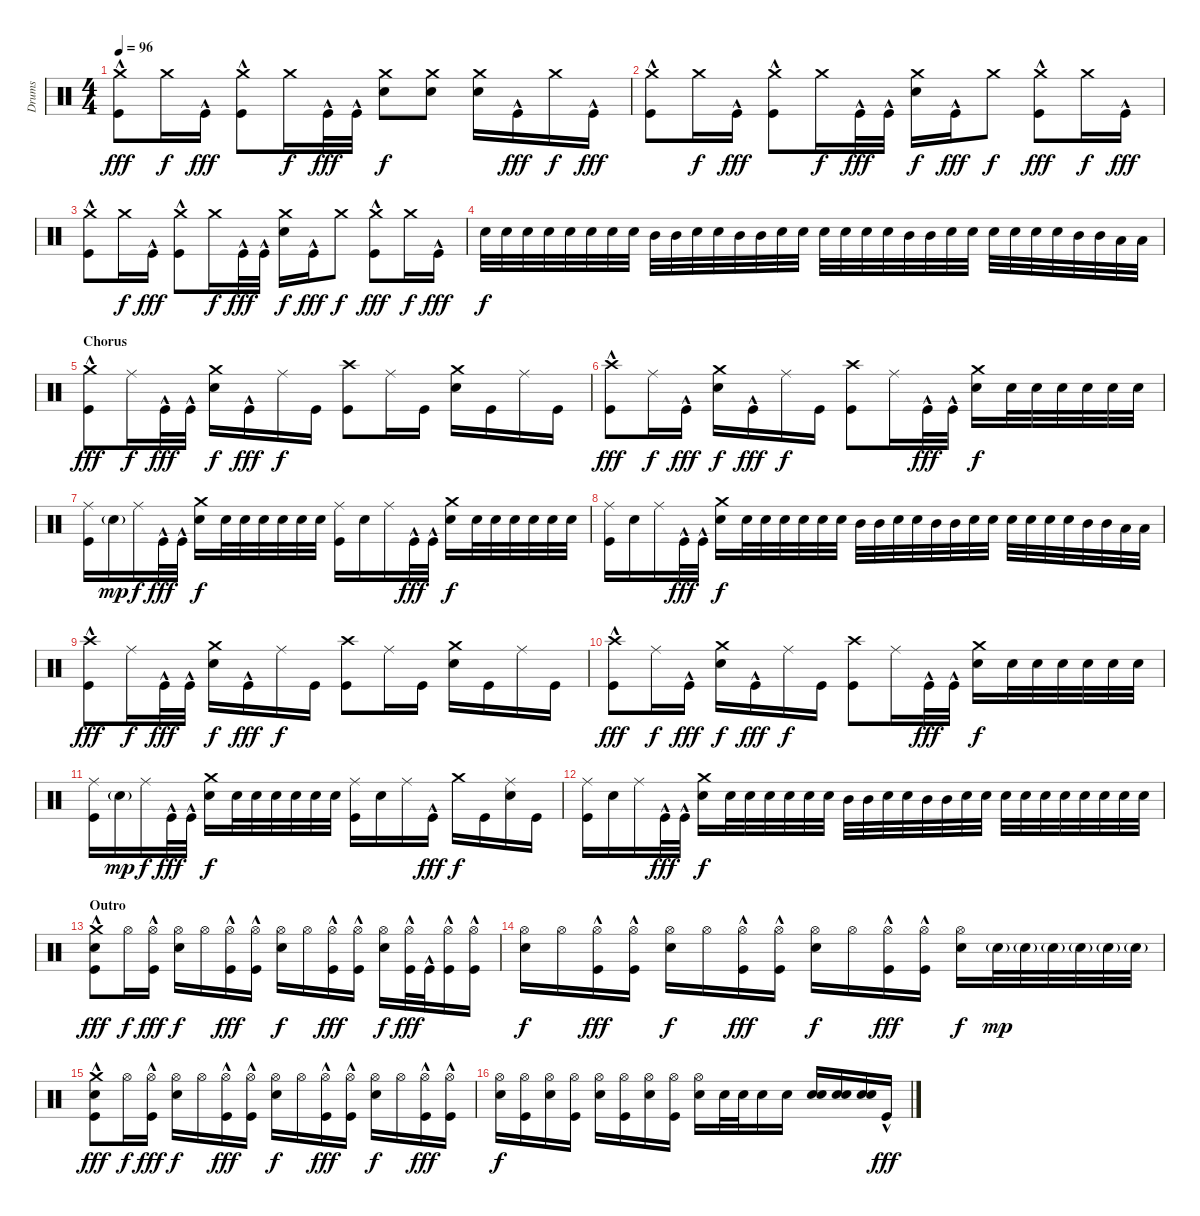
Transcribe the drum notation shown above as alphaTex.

\track ("Drums" "Drums") {instrument percussion}
\staff {score}
\articulation defaults
\ts (4 4)
\tempo 96
\clef neutral
\ks c
("Crash medium (hit)" "Kick (hit)"{hac}).8{dy fff} "Crash medium (hit)".16{dy f} "Kick (hit)"{hac}.16{dy fff} ("Crash medium (hit)" "Kick (hit)"{hac}).8 "Crash medium (hit)".16{dy f} "Kick (hit)"{hac}.32{dy fff} "Kick (hit)"{hac}.32 ("Crash medium (hit)" "Electric Snare (hit)").8{dy f} ("Crash medium (hit)" "Electric Snare (hit)").8 ("Crash medium (hit)" "Electric Snare (hit)").16 "Kick (hit)"{hac}.16{dy fff} "Crash medium (hit)".16{dy f} "Kick (hit)"{hac}.16{dy fff} |
("Crash medium (hit)" "Kick (hit)"{hac}).8 "Crash medium (hit)".16{dy f} "Kick (hit)"{hac}.16{dy fff} ("Crash medium (hit)" "Kick (hit)"{hac}).8 "Crash medium (hit)".16{dy f} "Kick (hit)"{hac}.32{dy fff} "Kick (hit)"{hac}.32 ("Crash medium (hit)" "Electric Snare (hit)").16{dy f} "Kick (hit)"{hac}.16{dy fff} "Crash medium (hit)".8{dy f} ("Crash medium (hit)" "Kick (hit)"{hac}).8{dy fff} "Crash medium (hit)".16{dy f} "Kick (hit)"{hac}.16{dy fff} |
("Crash medium (hit)" "Kick (hit)"{hac}).8 "Crash medium (hit)".16{dy f} "Kick (hit)"{hac}.16{dy fff} ("Crash medium (hit)" "Kick (hit)"{hac}).8 "Crash medium (hit)".16{dy f} "Kick (hit)"{hac}.32{dy fff} "Kick (hit)"{hac}.32 ("Crash medium (hit)" "Electric Snare (hit)").16{dy f} "Kick (hit)"{hac}.16{dy fff} "Crash medium (hit)".8{dy f} ("Crash medium (hit)" "Kick (hit)"{hac}).8{dy fff} "Crash medium (hit)".16{dy f} "Kick (hit)"{hac}.16{dy fff} |
"Electric Snare (hit)".32{dy f} "Electric Snare (hit)".32 "Electric Snare (hit)".32 "Electric Snare (hit)".32 "Electric Snare (hit)".32 "Electric Snare (hit)".32 "Electric Snare (hit)".32 "Electric Snare (hit)".32 "Mid Tom (hit)".32 "Mid Tom (hit)".32 "Electric Snare (hit)".32 "Electric Snare (hit)".32 "Mid Tom (hit)".32 "Mid Tom (hit)".32 "Electric Snare (hit)".32 "Electric Snare (hit)".32 "Electric Snare (hit)".32 "Electric Snare (hit)".32 "Electric Snare (hit)".32 "Electric Snare (hit)".32 "Mid Tom (hit)".32 "Mid Tom (hit)".32 "Electric Snare (hit)".32 "Electric Snare (hit)".32 "Electric Snare (hit)".32 "Electric Snare (hit)".32 "Electric Snare (hit)".32 "Electric Snare (hit)".32 "Mid Tom (hit)".32 "Mid Tom (hit)".32 "Low Tom (hit)".32 "Low Tom (hit)".32 |
\section ("" "Chorus")
("Crash medium (hit)" "Kick (hit)"{hac}).8{dy fff} "Ride (middle)".16{dy f} "Kick (hit)"{hac}.32{dy fff} "Kick (hit)"{hac}.32 ("Crash medium (hit)" "Electric Snare (hit)").16{dy f} "Kick (hit)"{hac}.16{dy fff} "Ride (middle)".16{dy f} "Kick (hit)".16 ("Crash high (hit)" "Kick (hit)").8 "Ride (middle)".16 "Kick (hit)".16 ("Crash medium (hit)" "Electric Snare (hit)").16 "Kick (hit)".16 "Ride (middle)".16 "Kick (hit)".16 |
("Crash high (hit)" "Kick (hit)"{hac}).8{dy fff} "Ride (middle)".16{dy f} "Kick (hit)"{hac}.16{dy fff} ("Crash medium (hit)" "Electric Snare (hit)").16{dy f} "Kick (hit)"{hac}.16{dy fff} "Ride (middle)".16{dy f} "Kick (hit)".16 ("Crash high (hit)" "Kick (hit)").8 "Ride (middle)".16 "Kick (hit)"{hac}.32{dy fff} "Kick (hit)"{hac}.32 ("Crash medium (hit)" "Electric Snare (hit)").16{dy f} "Electric Snare (hit)".32 "Electric Snare (hit)".32 "Electric Snare (hit)".32 "Electric Snare (hit)".32 "Electric Snare (hit)".32 "Electric Snare (hit)".32 |
("Ride (middle)" "Kick (hit)").16 "Electric Snare (hit)"{g}.16{dy mp} "Ride (middle)".16{dy f} "Kick (hit)"{hac}.32{dy fff} "Kick (hit)"{hac}.32 ("Crash medium (hit)" "Electric Snare (hit)").16{dy f} "Electric Snare (hit)".32 "Electric Snare (hit)".32 "Electric Snare (hit)".32 "Electric Snare (hit)".32 "Electric Snare (hit)".32 "Electric Snare (hit)".32 ("Ride (middle)" "Kick (hit)").16 "Electric Snare (hit)".16 "Ride (middle)".16 "Kick (hit)"{hac}.32{dy fff} "Kick (hit)"{hac}.32 ("Crash medium (hit)" "Electric Snare (hit)").16{dy f} "Electric Snare (hit)".32 "Electric Snare (hit)".32 "Electric Snare (hit)".32 "Electric Snare (hit)".32 "Electric Snare (hit)".32 "Electric Snare (hit)".32 |
("Ride (middle)" "Kick (hit)").16 "Electric Snare (hit)".16 "Ride (middle)".16 "Kick (hit)"{hac}.32{dy fff} "Kick (hit)"{hac}.32 ("Crash medium (hit)" "Electric Snare (hit)").16{dy f} "Electric Snare (hit)".32 "Electric Snare (hit)".32 "Electric Snare (hit)".32 "Electric Snare (hit)".32 "Electric Snare (hit)".32 "Electric Snare (hit)".32 "Mid Tom (hit)".32 "Mid Tom (hit)".32 "Electric Snare (hit)".32 "Electric Snare (hit)".32 "Mid Tom (hit)".32 "Mid Tom (hit)".32 "Electric Snare (hit)".32 "Electric Snare (hit)".32 "Electric Snare (hit)".32 "Electric Snare (hit)".32 "Electric Snare (hit)".32 "Electric Snare (hit)".32 "Mid Tom (hit)".32 "Mid Tom (hit)".32 "Low Tom (hit)".32 "Low Tom (hit)".32 |
("Crash high (hit)" "Kick (hit)"{hac}).8{dy fff} "Ride (middle)".16{dy f} "Kick (hit)"{hac}.32{dy fff} "Kick (hit)"{hac}.32 ("Crash medium (hit)" "Electric Snare (hit)").16{dy f} "Kick (hit)"{hac}.16{dy fff} "Ride (middle)".16{dy f} "Kick (hit)".16 ("Crash high (hit)" "Kick (hit)").8 "Ride (middle)".16 "Kick (hit)".16 ("Crash medium (hit)" "Electric Snare (hit)").16 "Kick (hit)".16 "Ride (middle)".16 "Kick (hit)".16 |
("Crash high (hit)" "Kick (hit)"{hac}).8{dy fff} "Ride (middle)".16{dy f} "Kick (hit)"{hac}.16{dy fff} ("Crash medium (hit)" "Electric Snare (hit)").16{dy f} "Kick (hit)"{hac}.16{dy fff} "Ride (middle)".16{dy f} "Kick (hit)".16 ("Crash high (hit)" "Kick (hit)").8 "Ride (middle)".16 "Kick (hit)"{hac}.32{dy fff} "Kick (hit)"{hac}.32 ("Crash medium (hit)" "Electric Snare (hit)").16{dy f} "Electric Snare (hit)".32 "Electric Snare (hit)".32 "Electric Snare (hit)".32 "Electric Snare (hit)".32 "Electric Snare (hit)".32 "Electric Snare (hit)".32 |
("Ride (middle)" "Kick (hit)").16 "Electric Snare (hit)"{g}.16{dy mp} "Ride (middle)".16{dy f} "Kick (hit)"{hac}.32{dy fff} "Kick (hit)"{hac}.32 ("Crash medium (hit)" "Electric Snare (hit)").16{dy f} "Electric Snare (hit)".32 "Electric Snare (hit)".32 "Electric Snare (hit)".32 "Electric Snare (hit)".32 "Electric Snare (hit)".32 "Electric Snare (hit)".32 ("Ride (middle)" "Kick (hit)").16 "Electric Snare (hit)".16 "Ride (middle)".16 "Kick (hit)"{hac}.16{dy fff} "Crash medium (hit)".16{dy f} "Kick (hit)".16 ("Ride (middle)" "Electric Snare (hit)").16 "Kick (hit)".16 |
("Ride (middle)" "Kick (hit)").16 "Electric Snare (hit)".16 "Ride (middle)".16 "Kick (hit)"{hac}.32{dy fff} "Kick (hit)"{hac}.32 ("Crash medium (hit)" "Electric Snare (hit)").16{dy f} "Electric Snare (hit)".32 "Electric Snare (hit)".32 "Electric Snare (hit)".32 "Electric Snare (hit)".32 "Electric Snare (hit)".32 "Electric Snare (hit)".32 "Mid Tom (hit)".32 "Mid Tom (hit)".32 "Electric Snare (hit)".32 "Electric Snare (hit)".32 "Mid Tom (hit)".32 "Mid Tom (hit)".32 "Electric Snare (hit)".32 "Electric Snare (hit)".32 "Electric Snare (hit)".32 "Electric Snare (hit)".32 "Electric Snare (hit)".32 "Electric Snare (hit)".32 "Electric Snare (hit)".32 "Electric Snare (hit)".32 "Electric Snare (hit)".32 "Electric Snare (hit)".32 |
\section ("" "Outro")
("Crash medium (hit)" "Electric Snare (hit)" "Kick (hit)"{hac}).8{dy fff} "Hi-Hat (open)".16{dy f} ("Hi-Hat (open)" "Kick (hit)"{hac}).16{dy fff} ("Hi-Hat (open)" "Electric Snare (hit)").16{dy f} "Hi-Hat (open)".16 ("Hi-Hat (open)" "Kick (hit)"{hac}).16{dy fff} ("Hi-Hat (open)" "Kick (hit)"{hac}).16 ("Hi-Hat (open)" "Electric Snare (hit)").16{dy f} "Hi-Hat (open)".16 ("Hi-Hat (open)" "Kick (hit)"{hac}).16{dy fff} ("Hi-Hat (open)" "Kick (hit)"{hac}).16 ("Hi-Hat (open)" "Electric Snare (hit)").16{dy f} ("Hi-Hat (open)" "Kick (hit)"{hac}).32{dy fff} "Kick (hit)"{hac}.32 ("Hi-Hat (open)" "Kick (hit)"{hac}).16 ("Hi-Hat (open)" "Kick (hit)"{hac}).16 |
("Hi-Hat (open)" "Electric Snare (hit)").16{dy f} "Hi-Hat (open)".16 ("Hi-Hat (open)" "Kick (hit)"{hac}).16{dy fff} ("Hi-Hat (open)" "Kick (hit)"{hac}).16 ("Hi-Hat (open)" "Electric Snare (hit)").16{dy f} "Hi-Hat (open)".16 ("Hi-Hat (open)" "Kick (hit)"{hac}).16{dy fff} ("Hi-Hat (open)" "Kick (hit)"{hac}).16 ("Hi-Hat (open)" "Electric Snare (hit)").16{dy f} "Hi-Hat (open)".16 ("Hi-Hat (open)" "Kick (hit)"{hac}).16{dy fff} ("Hi-Hat (open)" "Kick (hit)"{hac}).16 ("Hi-Hat (open)" "Electric Snare (hit)").16{dy f} "Electric Snare (hit)"{g}.32{dy mp} "Electric Snare (hit)"{g}.32 "Electric Snare (hit)"{g}.32 "Electric Snare (hit)"{g}.32 "Electric Snare (hit)"{g}.32 "Electric Snare (hit)"{g}.32 |
("Crash medium (hit)" "Electric Snare (hit)" "Kick (hit)"{hac}).8{dy fff} "Hi-Hat (open)".16{dy f} ("Hi-Hat (open)" "Kick (hit)"{hac}).16{dy fff} ("Hi-Hat (open)" "Electric Snare (hit)").16{dy f} "Hi-Hat (open)".16 ("Hi-Hat (open)" "Kick (hit)"{hac}).16{dy fff} ("Hi-Hat (open)" "Kick (hit)"{hac}).16 ("Hi-Hat (open)" "Electric Snare (hit)").16{dy f} "Hi-Hat (open)".16 ("Hi-Hat (open)" "Kick (hit)"{hac}).16{dy fff} ("Hi-Hat (open)" "Kick (hit)"{hac}).16 ("Hi-Hat (open)" "Electric Snare (hit)").16{dy f} "Hi-Hat (open)".16 ("Hi-Hat (open)" "Kick (hit)"{hac}).16{dy fff} ("Hi-Hat (open)" "Kick (hit)"{hac}).16 |
("Hi-Hat (open)" "Electric Snare (hit)").16{dy f} ("Hi-Hat (open)" "Kick (hit)").16 ("Hi-Hat (open)" "Electric Snare (hit)").16 ("Hi-Hat (open)" "Kick (hit)").16 ("Hi-Hat (open)" "Electric Snare (hit)").16 ("Hi-Hat (open)" "Kick (hit)").16 ("Hi-Hat (open)" "Electric Snare (hit)").16 ("Hi-Hat (open)" "Kick (hit)").16 ("Hi-Hat (open)" "Electric Snare (hit)").16 "Electric Snare (hit)".32 "Electric Snare (hit)".32 "Electric Snare (hit)".16 "Electric Snare (hit)".16 ("Electric Snare (hit)" "Electric Snare (hit)").16 ("Electric Snare (hit)" "Electric Snare (hit)").16 ("Electric Snare (hit)" "Electric Snare (hit)").16 "Kick (hit)"{hac}.16{dy fff}
